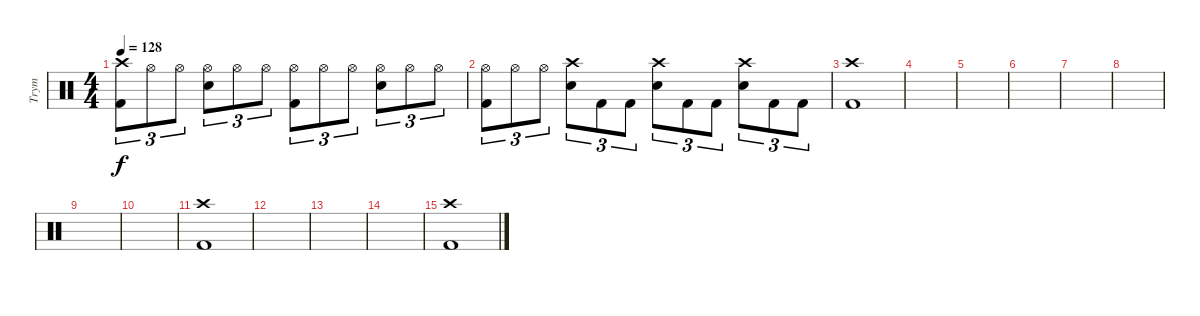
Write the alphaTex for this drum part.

\track ("Trym" "Trym") {instrument percussion}
\staff {score}
\articulation defaults
\ts (4 4)
\tempo 128
\clef neutral
\ks c
("Crash high (hit)" "Kick (hit) 2").8{tu (3 2) dy f} "Hi-Hat (open)".8{tu (3 2)} "Hi-Hat (open)".8{tu (3 2)} ("Hi-Hat (open)" "Electric Snare (hit)").8{tu (3 2)} "Hi-Hat (open)".8{tu (3 2)} "Hi-Hat (open)".8{tu (3 2)} ("Hi-Hat (open)" "Kick (hit) 2").8{tu (3 2)} "Hi-Hat (open)".8{tu (3 2)} "Hi-Hat (open)".8{tu (3 2)} ("Hi-Hat (open)" "Electric Snare (hit)").8{tu (3 2)} "Hi-Hat (open)".8{tu (3 2)} "Hi-Hat (open)".8{tu (3 2)} |
("Hi-Hat (open)" "Kick (hit) 2").8{tu (3 2)} "Hi-Hat (open)".8{tu (3 2)} "Hi-Hat (open)".8{tu (3 2)} ("Crash high (hit)" "Electric Snare (hit)").8{tu (3 2)} "Kick (hit) 2".8{tu (3 2)} "Kick (hit) 2".8{tu (3 2)} ("Crash high (hit)" "Electric Snare (hit)").8{tu (3 2)} "Kick (hit) 2".8{tu (3 2)} "Kick (hit) 2".8{tu (3 2)} ("Crash high (hit)" "Electric Snare (hit)").8{tu (3 2)} "Kick (hit) 2".8{tu (3 2)} "Kick (hit) 2".8{tu (3 2)} |
("Crash high (hit)" "Kick (hit) 2").1 |
|
|
|
|
|
|
|
("Crash high (hit)" "Kick (hit) 2").1 |
|
|
|
("Crash high (hit)" "Kick (hit) 2").1
